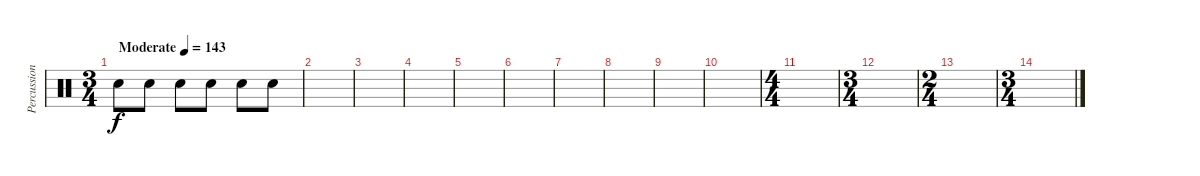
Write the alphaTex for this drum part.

\track ("Percussion" "Percussion") {instrument percussion}
\staff {score}
\articulation defaults
\ts (3 4)
\tempo (143 "Moderate")
\clef neutral
\ks c "Electric Snare (hit)".8{dy f} "Electric Snare (hit)".8 "Electric Snare (hit)".8 "Electric Snare (hit)".8 "Electric Snare (hit)".8 "Electric Snare (hit)".8
|
|
|
|
|
|
|
|
|
|
\ts (4 4)
|
\ts (3 4)
|
\ts (2 4)
|
\ts (3 4)
